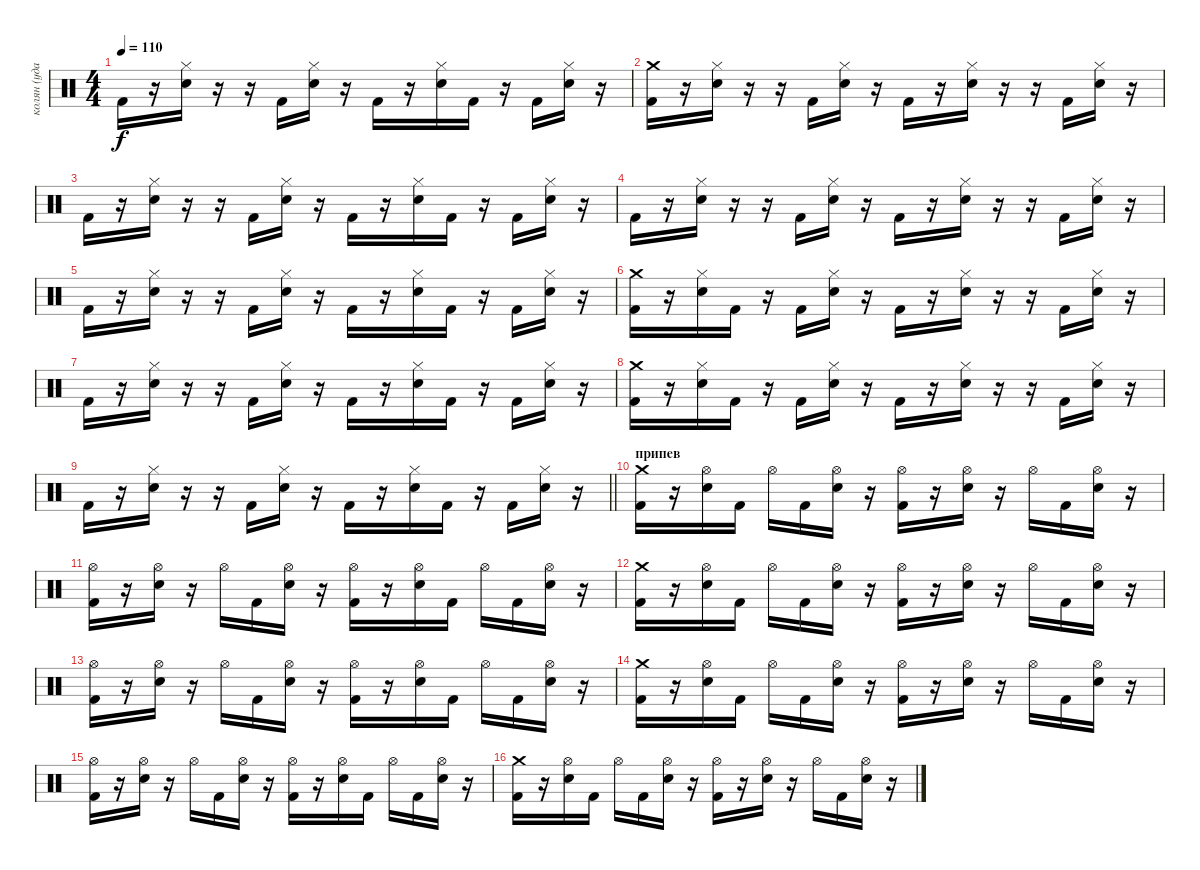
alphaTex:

\track ("колян (ударные)" "колян (уда") {instrument percussion}
\staff {score}
\articulation defaults
\ts (4 4)
\tempo 110
\clef neutral
\ks c "Kick (hit) 2".16{dy f}
r.16 ("Snare (hit) 2" "Hi-Hat (closed)").16 r.16 r.16 "Kick (hit) 2".16 ("Snare (hit) 2" "Hi-Hat (closed)").16 r.16 "Kick (hit) 2".16 r.16 ("Snare (hit) 2" "Hi-Hat (closed)").16 "Kick (hit) 2".16 r.16 "Kick (hit) 2".16 ("Snare (hit) 2" "Hi-Hat (closed)").16 r.16 |
("Kick (hit) 2" "Crash medium (hit)").16 r.16 ("Snare (hit) 2" "Hi-Hat (closed)").16 r.16 r.16 "Kick (hit) 2".16 ("Snare (hit) 2" "Hi-Hat (closed)").16 r.16 "Kick (hit) 2".16 r.16 ("Snare (hit) 2" "Hi-Hat (closed)").16 r.16 r.16 "Kick (hit) 2".16 ("Snare (hit) 2" "Hi-Hat (closed)").16 r.16 |
"Kick (hit) 2".16 r.16 ("Snare (hit) 2" "Hi-Hat (closed)").16 r.16 r.16 "Kick (hit) 2".16 ("Snare (hit) 2" "Hi-Hat (closed)").16 r.16 "Kick (hit) 2".16 r.16 ("Snare (hit) 2" "Hi-Hat (closed)").16 "Kick (hit) 2".16 r.16 "Kick (hit) 2".16 ("Snare (hit) 2" "Hi-Hat (closed)").16 r.16 |
"Kick (hit) 2".16 r.16 ("Snare (hit) 2" "Hi-Hat (closed)").16 r.16 r.16 "Kick (hit) 2".16 ("Snare (hit) 2" "Hi-Hat (closed)").16 r.16 "Kick (hit) 2".16 r.16 ("Snare (hit) 2" "Hi-Hat (closed)").16 r.16 r.16 "Kick (hit) 2".16 ("Snare (hit) 2" "Hi-Hat (closed)").16 r.16 |
"Kick (hit) 2".16 r.16 ("Snare (hit) 2" "Hi-Hat (closed)").16 r.16 r.16 "Kick (hit) 2".16 ("Snare (hit) 2" "Hi-Hat (closed)").16 r.16 "Kick (hit) 2".16 r.16 ("Snare (hit) 2" "Hi-Hat (closed)").16 "Kick (hit) 2".16 r.16 "Kick (hit) 2".16 ("Snare (hit) 2" "Hi-Hat (closed)").16 r.16 |
("Kick (hit) 2" "Crash medium (hit)").16 r.16 ("Snare (hit) 2" "Hi-Hat (closed)").16 "Kick (hit) 2".16 r.16 "Kick (hit) 2".16 ("Snare (hit) 2" "Hi-Hat (closed)").16 r.16 "Kick (hit) 2".16 r.16 ("Snare (hit) 2" "Hi-Hat (closed)").16 r.16 r.16 "Kick (hit) 2".16 ("Snare (hit) 2" "Hi-Hat (closed)").16 r.16 |
"Kick (hit) 2".16 r.16 ("Snare (hit) 2" "Hi-Hat (closed)").16 r.16 r.16 "Kick (hit) 2".16 ("Snare (hit) 2" "Hi-Hat (closed)").16 r.16 "Kick (hit) 2".16 r.16 ("Snare (hit) 2" "Hi-Hat (closed)").16 "Kick (hit) 2".16 r.16 "Kick (hit) 2".16 ("Snare (hit) 2" "Hi-Hat (closed)").16 r.16 |
("Kick (hit) 2" "Crash medium (hit)").16 r.16 ("Snare (hit) 2" "Hi-Hat (closed)").16 "Kick (hit) 2".16 r.16 "Kick (hit) 2".16 ("Snare (hit) 2" "Hi-Hat (closed)").16 r.16 "Kick (hit) 2".16 r.16 ("Snare (hit) 2" "Hi-Hat (closed)").16 r.16 r.16 "Kick (hit) 2".16 ("Snare (hit) 2" "Hi-Hat (closed)").16 r.16 |
\barLineRight lightlight "Kick (hit) 2".16
r.16 ("Snare (hit) 2" "Hi-Hat (closed)").16 r.16 r.16 "Kick (hit) 2".16 ("Snare (hit) 2" "Hi-Hat (closed)").16 r.16 "Kick (hit) 2".16 r.16 ("Snare (hit) 2" "Hi-Hat (closed)").16 "Kick (hit) 2".16 r.16 "Kick (hit) 2".16 ("Snare (hit) 2" "Hi-Hat (closed)").16 r.16 |
\section ("" "припев")
("Kick (hit) 2" "Crash medium (hit)").16 r.16 ("Snare (hit) 2" "Hi-Hat (open)").16 "Kick (hit) 2".16 "Hi-Hat (open)".16 "Kick (hit) 2".16 ("Snare (hit) 2" "Hi-Hat (open)").16 r.16 ("Kick (hit) 2" "Hi-Hat (open)").16 r.16 ("Snare (hit) 2" "Hi-Hat (open)").16 r.16 "Hi-Hat (open)".16 "Kick (hit) 2".16 ("Snare (hit) 2" "Hi-Hat (open)").16 r.16 |
("Kick (hit) 2" "Hi-Hat (open)").16 r.16 ("Snare (hit) 2" "Hi-Hat (open)").16 r.16 "Hi-Hat (open)".16 "Kick (hit) 2".16 ("Snare (hit) 2" "Hi-Hat (open)").16 r.16 ("Kick (hit) 2" "Hi-Hat (open)").16 r.16 ("Snare (hit) 2" "Hi-Hat (open)").16 "Kick (hit) 2".16 "Hi-Hat (open)".16 "Kick (hit) 2".16 ("Snare (hit) 2" "Hi-Hat (open)").16 r.16 |
("Kick (hit) 2" "Crash medium (hit)").16 r.16 ("Snare (hit) 2" "Hi-Hat (open)").16 "Kick (hit) 2".16 "Hi-Hat (open)".16 "Kick (hit) 2".16 ("Snare (hit) 2" "Hi-Hat (open)").16 r.16 ("Kick (hit) 2" "Hi-Hat (open)").16 r.16 ("Snare (hit) 2" "Hi-Hat (open)").16 r.16 "Hi-Hat (open)".16 "Kick (hit) 2".16 ("Snare (hit) 2" "Hi-Hat (open)").16 r.16 |
("Kick (hit) 2" "Hi-Hat (open)").16 r.16 ("Snare (hit) 2" "Hi-Hat (open)").16 r.16 "Hi-Hat (open)".16 "Kick (hit) 2".16 ("Snare (hit) 2" "Hi-Hat (open)").16 r.16 ("Kick (hit) 2" "Hi-Hat (open)").16 r.16 ("Snare (hit) 2" "Hi-Hat (open)").16 "Kick (hit) 2".16 "Hi-Hat (open)".16 "Kick (hit) 2".16 ("Snare (hit) 2" "Hi-Hat (open)").16 r.16 |
("Kick (hit) 2" "Crash medium (hit)").16 r.16 ("Snare (hit) 2" "Hi-Hat (open)").16 "Kick (hit) 2".16 "Hi-Hat (open)".16 "Kick (hit) 2".16 ("Snare (hit) 2" "Hi-Hat (open)").16 r.16 ("Kick (hit) 2" "Hi-Hat (open)").16 r.16 ("Snare (hit) 2" "Hi-Hat (open)").16 r.16 "Hi-Hat (open)".16 "Kick (hit) 2".16 ("Snare (hit) 2" "Hi-Hat (open)").16 r.16 |
("Kick (hit) 2" "Hi-Hat (open)").16 r.16 ("Snare (hit) 2" "Hi-Hat (open)").16 r.16 "Hi-Hat (open)".16 "Kick (hit) 2".16 ("Snare (hit) 2" "Hi-Hat (open)").16 r.16 ("Kick (hit) 2" "Hi-Hat (open)").16 r.16 ("Snare (hit) 2" "Hi-Hat (open)").16 "Kick (hit) 2".16 "Hi-Hat (open)".16 "Kick (hit) 2".16 ("Snare (hit) 2" "Hi-Hat (open)").16 r.16 |
("Kick (hit) 2" "Crash medium (hit)").16 r.16 ("Snare (hit) 2" "Hi-Hat (open)").16 "Kick (hit) 2".16 "Hi-Hat (open)".16 "Kick (hit) 2".16 ("Snare (hit) 2" "Hi-Hat (open)").16 r.16 ("Kick (hit) 2" "Hi-Hat (open)").16 r.16 ("Snare (hit) 2" "Hi-Hat (open)").16 r.16 "Hi-Hat (open)".16 "Kick (hit) 2".16 ("Snare (hit) 2" "Hi-Hat (open)").16 r.16
